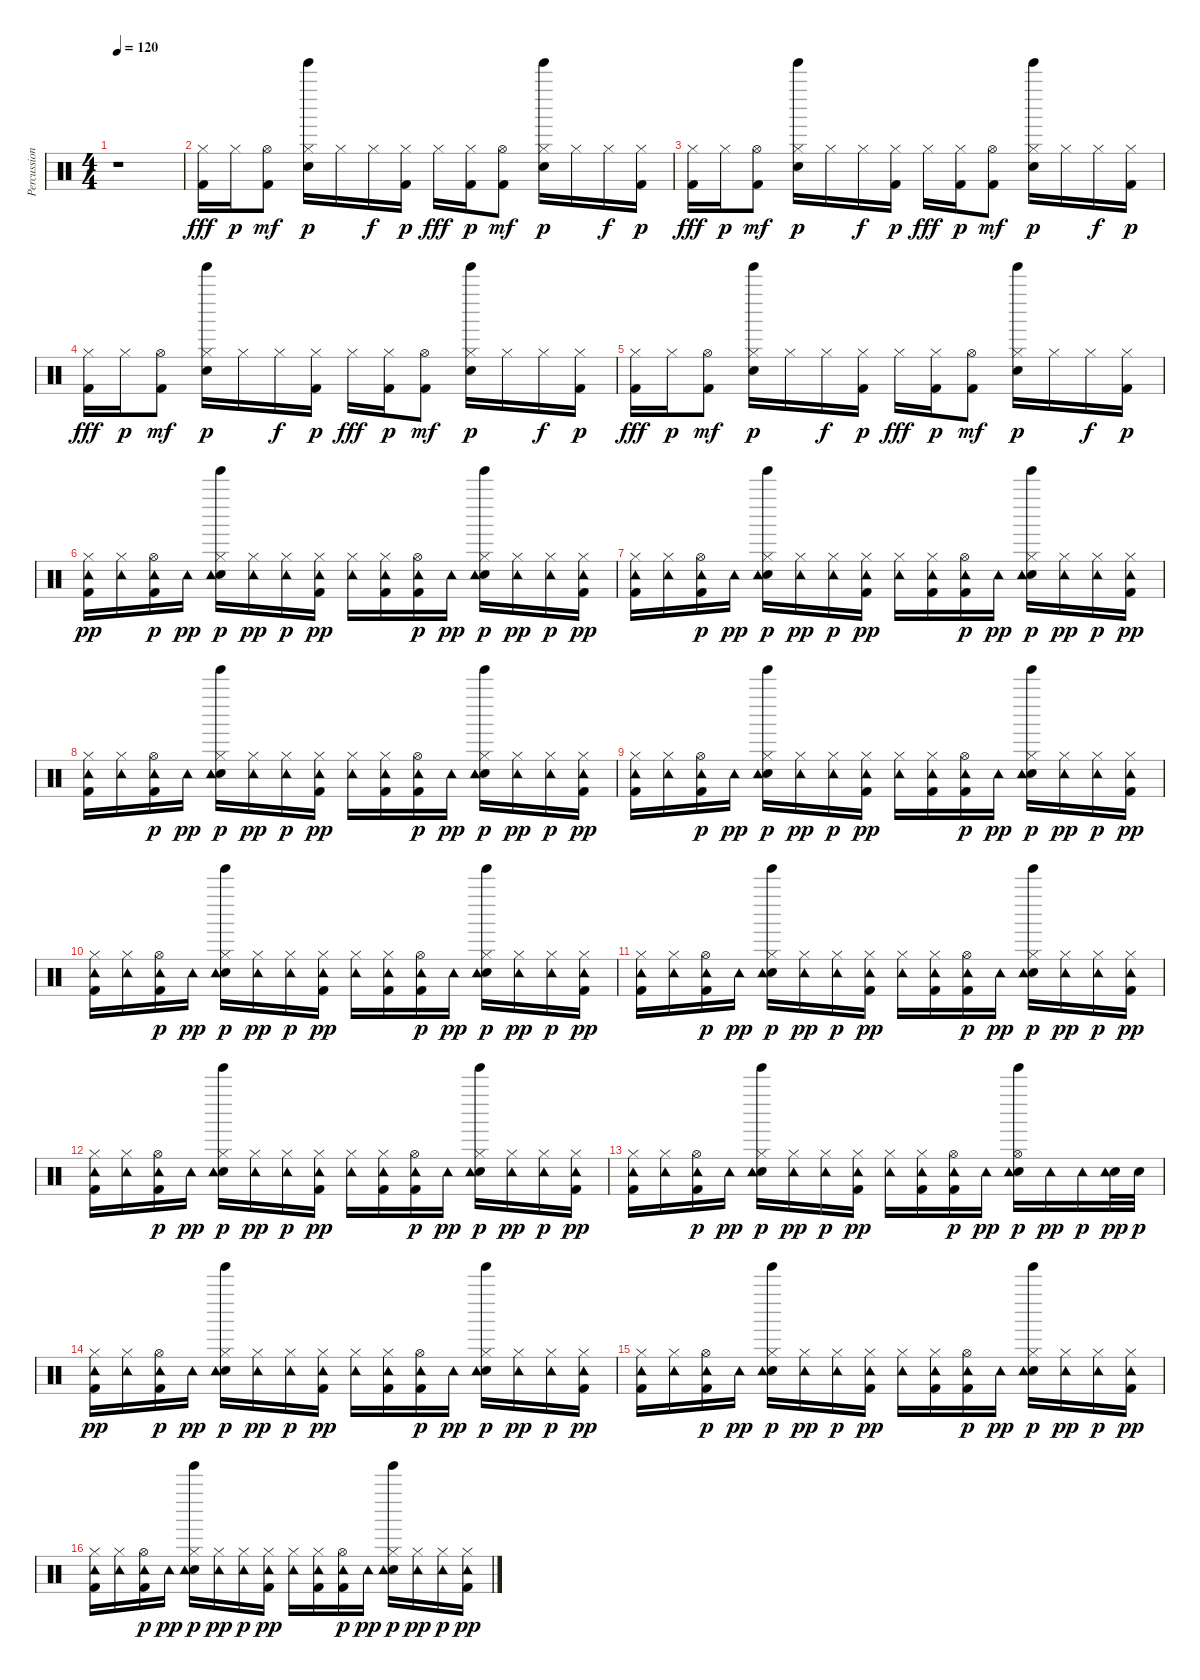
\track ("Percussioni" "Percussion") {instrument percussion}
\staff {score}
\articulation defaults
\ts (4 4)
\tempo 120
\clef neutral
\ks c
r.1{dy fff} |
("Kick (hit) 2" "Hi-Hat (closed)").16 "Hi-Hat (closed)".16{dy p} ("Kick (hit) 2" "Hi-Hat (open)").8{dy mf} ("Electric Snare (hit)" "Hi-Hat (closed)" "Tinkle Bell (hit)").16{dy p} "Hi-Hat (closed)".16 "Hi-Hat (closed)".16{dy f} ("Kick (hit) 2" "Hi-Hat (closed)").16{dy p} "Hi-Hat (closed)".16{dy fff} ("Kick (hit) 2" "Hi-Hat (closed)").16{dy p} ("Kick (hit) 2" "Hi-Hat (open)").8{dy mf} ("Electric Snare (hit)" "Hi-Hat (closed)" "Tinkle Bell (hit)").16{dy p} "Hi-Hat (closed)".16 "Hi-Hat (closed)".16{dy f} ("Kick (hit) 2" "Hi-Hat (closed)").16{dy p} |
("Kick (hit) 2" "Hi-Hat (closed)").16{dy fff} "Hi-Hat (closed)".16{dy p} ("Kick (hit) 2" "Hi-Hat (open)").8{dy mf} ("Electric Snare (hit)" "Hi-Hat (closed)" "Tinkle Bell (hit)").16{dy p} "Hi-Hat (closed)".16 "Hi-Hat (closed)".16{dy f} ("Kick (hit) 2" "Hi-Hat (closed)").16{dy p} "Hi-Hat (closed)".16{dy fff} ("Kick (hit) 2" "Hi-Hat (closed)").16{dy p} ("Kick (hit) 2" "Hi-Hat (open)").8{dy mf} ("Electric Snare (hit)" "Hi-Hat (closed)" "Tinkle Bell (hit)").16{dy p} "Hi-Hat (closed)".16 "Hi-Hat (closed)".16{dy f} ("Kick (hit) 2" "Hi-Hat (closed)").16{dy p} |
("Kick (hit) 2" "Hi-Hat (closed)").16{dy fff} "Hi-Hat (closed)".16{dy p} ("Kick (hit) 2" "Hi-Hat (open)").8{dy mf} ("Electric Snare (hit)" "Hi-Hat (closed)" "Tinkle Bell (hit)").16{dy p} "Hi-Hat (closed)".16 "Hi-Hat (closed)".16{dy f} ("Kick (hit) 2" "Hi-Hat (closed)").16{dy p} "Hi-Hat (closed)".16{dy fff} ("Kick (hit) 2" "Hi-Hat (closed)").16{dy p} ("Kick (hit) 2" "Hi-Hat (open)").8{dy mf} ("Electric Snare (hit)" "Hi-Hat (closed)" "Tinkle Bell (hit)").16{dy p} "Hi-Hat (closed)".16 "Hi-Hat (closed)".16{dy f} ("Kick (hit) 2" "Hi-Hat (closed)").16{dy p} |
("Kick (hit) 2" "Hi-Hat (closed)").16{dy fff} "Hi-Hat (closed)".16{dy p} ("Kick (hit) 2" "Hi-Hat (open)").8{dy mf} ("Electric Snare (hit)" "Hi-Hat (closed)" "Tinkle Bell (hit)").16{dy p} "Hi-Hat (closed)".16 "Hi-Hat (closed)".16{dy f} ("Kick (hit) 2" "Hi-Hat (closed)").16{dy p} "Hi-Hat (closed)".16{dy fff} ("Kick (hit) 2" "Hi-Hat (closed)").16{dy p} ("Kick (hit) 2" "Hi-Hat (open)").8{dy mf} ("Electric Snare (hit)" "Hi-Hat (closed)" "Tinkle Bell (hit)").16{dy p} "Hi-Hat (closed)".16 "Hi-Hat (closed)".16{dy f} ("Kick (hit) 2" "Hi-Hat (closed)").16{dy p} |
("Kick (hit) 2" "Hi-Hat (closed)" "Tambourine (hit)").16{dy pp} ("Hi-Hat (closed)" "Tambourine (hit)").16 ("Kick (hit) 2" "Hi-Hat (open)" "Tambourine (hit)").16{dy p} "Tambourine (hit)".16{dy pp} ("Electric Snare (hit)" "Hi-Hat (closed)" "Tambourine (hit)" "Tinkle Bell (hit)").16{dy p} ("Hi-Hat (closed)" "Tambourine (hit)").16{dy pp} ("Hi-Hat (closed)" "Tambourine (hit)").16{dy p} ("Kick (hit) 2" "Hi-Hat (closed)" "Tambourine (hit)").16{dy pp} ("Hi-Hat (closed)" "Tambourine (hit)").16 ("Kick (hit) 2" "Hi-Hat (closed)" "Tambourine (hit)").16 ("Kick (hit) 2" "Hi-Hat (open)" "Tambourine (hit)").16{dy p} "Tambourine (hit)".16{dy pp} ("Electric Snare (hit)" "Hi-Hat (closed)" "Tambourine (hit)" "Tinkle Bell (hit)").16{dy p} ("Hi-Hat (closed)" "Tambourine (hit)").16{dy pp} ("Hi-Hat (closed)" "Tambourine (hit)").16{dy p} ("Kick (hit) 2" "Hi-Hat (closed)" "Tambourine (hit)").16{dy pp} |
("Kick (hit) 2" "Hi-Hat (closed)" "Tambourine (hit)").16 ("Hi-Hat (closed)" "Tambourine (hit)").16 ("Kick (hit) 2" "Hi-Hat (open)" "Tambourine (hit)").16{dy p} "Tambourine (hit)".16{dy pp} ("Electric Snare (hit)" "Hi-Hat (closed)" "Tambourine (hit)" "Tinkle Bell (hit)").16{dy p} ("Hi-Hat (closed)" "Tambourine (hit)").16{dy pp} ("Hi-Hat (closed)" "Tambourine (hit)").16{dy p} ("Kick (hit) 2" "Hi-Hat (closed)" "Tambourine (hit)").16{dy pp} ("Hi-Hat (closed)" "Tambourine (hit)").16 ("Kick (hit) 2" "Hi-Hat (closed)" "Tambourine (hit)").16 ("Kick (hit) 2" "Hi-Hat (open)" "Tambourine (hit)").16{dy p} "Tambourine (hit)".16{dy pp} ("Electric Snare (hit)" "Hi-Hat (closed)" "Tambourine (hit)" "Tinkle Bell (hit)").16{dy p} ("Hi-Hat (closed)" "Tambourine (hit)").16{dy pp} ("Hi-Hat (closed)" "Tambourine (hit)").16{dy p} ("Kick (hit) 2" "Hi-Hat (closed)" "Tambourine (hit)").16{dy pp} |
("Kick (hit) 2" "Hi-Hat (closed)" "Tambourine (hit)").16 ("Hi-Hat (closed)" "Tambourine (hit)").16 ("Kick (hit) 2" "Hi-Hat (open)" "Tambourine (hit)").16{dy p} "Tambourine (hit)".16{dy pp} ("Electric Snare (hit)" "Hi-Hat (closed)" "Tambourine (hit)" "Tinkle Bell (hit)").16{dy p} ("Hi-Hat (closed)" "Tambourine (hit)").16{dy pp} ("Hi-Hat (closed)" "Tambourine (hit)").16{dy p} ("Kick (hit) 2" "Hi-Hat (closed)" "Tambourine (hit)").16{dy pp} ("Hi-Hat (closed)" "Tambourine (hit)").16 ("Kick (hit) 2" "Hi-Hat (closed)" "Tambourine (hit)").16 ("Kick (hit) 2" "Hi-Hat (open)" "Tambourine (hit)").16{dy p} "Tambourine (hit)".16{dy pp} ("Electric Snare (hit)" "Hi-Hat (closed)" "Tambourine (hit)" "Tinkle Bell (hit)").16{dy p} ("Hi-Hat (closed)" "Tambourine (hit)").16{dy pp} ("Hi-Hat (closed)" "Tambourine (hit)").16{dy p} ("Kick (hit) 2" "Hi-Hat (closed)" "Tambourine (hit)").16{dy pp} |
("Kick (hit) 2" "Hi-Hat (closed)" "Tambourine (hit)").16 ("Hi-Hat (closed)" "Tambourine (hit)").16 ("Kick (hit) 2" "Hi-Hat (open)" "Tambourine (hit)").16{dy p} "Tambourine (hit)".16{dy pp} ("Electric Snare (hit)" "Hi-Hat (closed)" "Tambourine (hit)" "Tinkle Bell (hit)").16{dy p} ("Hi-Hat (closed)" "Tambourine (hit)").16{dy pp} ("Hi-Hat (closed)" "Tambourine (hit)").16{dy p} ("Kick (hit) 2" "Hi-Hat (closed)" "Tambourine (hit)").16{dy pp} ("Hi-Hat (closed)" "Tambourine (hit)").16 ("Kick (hit) 2" "Hi-Hat (closed)" "Tambourine (hit)").16 ("Kick (hit) 2" "Hi-Hat (open)" "Tambourine (hit)").16{dy p} "Tambourine (hit)".16{dy pp} ("Electric Snare (hit)" "Hi-Hat (closed)" "Tambourine (hit)" "Tinkle Bell (hit)").16{dy p} ("Hi-Hat (closed)" "Tambourine (hit)").16{dy pp} ("Hi-Hat (closed)" "Tambourine (hit)").16{dy p} ("Kick (hit) 2" "Hi-Hat (closed)" "Tambourine (hit)").16{dy pp} |
("Kick (hit) 2" "Hi-Hat (closed)" "Tambourine (hit)").16 ("Hi-Hat (closed)" "Tambourine (hit)").16 ("Kick (hit) 2" "Hi-Hat (open)" "Tambourine (hit)").16{dy p} "Tambourine (hit)".16{dy pp} ("Electric Snare (hit)" "Hi-Hat (closed)" "Tambourine (hit)" "Tinkle Bell (hit)").16{dy p} ("Hi-Hat (closed)" "Tambourine (hit)").16{dy pp} ("Hi-Hat (closed)" "Tambourine (hit)").16{dy p} ("Kick (hit) 2" "Hi-Hat (closed)" "Tambourine (hit)").16{dy pp} ("Hi-Hat (closed)" "Tambourine (hit)").16 ("Kick (hit) 2" "Hi-Hat (closed)" "Tambourine (hit)").16 ("Kick (hit) 2" "Hi-Hat (open)" "Tambourine (hit)").16{dy p} "Tambourine (hit)".16{dy pp} ("Electric Snare (hit)" "Hi-Hat (closed)" "Tambourine (hit)" "Tinkle Bell (hit)").16{dy p} ("Hi-Hat (closed)" "Tambourine (hit)").16{dy pp} ("Hi-Hat (closed)" "Tambourine (hit)").16{dy p} ("Kick (hit) 2" "Hi-Hat (closed)" "Tambourine (hit)").16{dy pp} |
("Kick (hit) 2" "Hi-Hat (closed)" "Tambourine (hit)").16 ("Hi-Hat (closed)" "Tambourine (hit)").16 ("Kick (hit) 2" "Hi-Hat (open)" "Tambourine (hit)").16{dy p} "Tambourine (hit)".16{dy pp} ("Electric Snare (hit)" "Hi-Hat (closed)" "Tambourine (hit)" "Tinkle Bell (hit)").16{dy p} ("Hi-Hat (closed)" "Tambourine (hit)").16{dy pp} ("Hi-Hat (closed)" "Tambourine (hit)").16{dy p} ("Kick (hit) 2" "Hi-Hat (closed)" "Tambourine (hit)").16{dy pp} ("Hi-Hat (closed)" "Tambourine (hit)").16 ("Kick (hit) 2" "Hi-Hat (closed)" "Tambourine (hit)").16 ("Kick (hit) 2" "Hi-Hat (open)" "Tambourine (hit)").16{dy p} "Tambourine (hit)".16{dy pp} ("Electric Snare (hit)" "Hi-Hat (closed)" "Tambourine (hit)" "Tinkle Bell (hit)").16{dy p} ("Hi-Hat (closed)" "Tambourine (hit)").16{dy pp} ("Hi-Hat (closed)" "Tambourine (hit)").16{dy p} ("Kick (hit) 2" "Hi-Hat (closed)" "Tambourine (hit)").16{dy pp} |
("Kick (hit) 2" "Hi-Hat (closed)" "Tambourine (hit)").16 ("Hi-Hat (closed)" "Tambourine (hit)").16 ("Kick (hit) 2" "Hi-Hat (open)" "Tambourine (hit)").16{dy p} "Tambourine (hit)".16{dy pp} ("Electric Snare (hit)" "Hi-Hat (closed)" "Tambourine (hit)" "Tinkle Bell (hit)").16{dy p} ("Hi-Hat (closed)" "Tambourine (hit)").16{dy pp} ("Hi-Hat (closed)" "Tambourine (hit)").16{dy p} ("Kick (hit) 2" "Hi-Hat (closed)" "Tambourine (hit)").16{dy pp} ("Hi-Hat (closed)" "Tambourine (hit)").16 ("Kick (hit) 2" "Hi-Hat (closed)" "Tambourine (hit)").16 ("Kick (hit) 2" "Hi-Hat (open)" "Tambourine (hit)").16{dy p} "Tambourine (hit)".16{dy pp} ("Electric Snare (hit)" "Hi-Hat (closed)" "Tambourine (hit)" "Tinkle Bell (hit)").16{dy p} ("Hi-Hat (closed)" "Tambourine (hit)").16{dy pp} ("Hi-Hat (closed)" "Tambourine (hit)").16{dy p} ("Kick (hit) 2" "Hi-Hat (closed)" "Tambourine (hit)").16{dy pp} |
("Kick (hit) 2" "Hi-Hat (closed)" "Tambourine (hit)").16 ("Hi-Hat (closed)" "Tambourine (hit)").16 ("Kick (hit) 2" "Hi-Hat (open)" "Tambourine (hit)").16{dy p} "Tambourine (hit)".16{dy pp} ("Electric Snare (hit)" "Hi-Hat (closed)" "Tambourine (hit)" "Tinkle Bell (hit)").16{dy p} ("Hi-Hat (closed)" "Tambourine (hit)").16{dy pp} ("Hi-Hat (closed)" "Tambourine (hit)").16{dy p} ("Kick (hit) 2" "Hi-Hat (closed)" "Tambourine (hit)").16{dy pp} ("Hi-Hat (closed)" "Tambourine (hit)").16 ("Kick (hit) 2" "Hi-Hat (closed)" "Tambourine (hit)").16 ("Kick (hit) 2" "Hi-Hat (open)" "Tambourine (hit)").16{dy p} "Tambourine (hit)".16{dy pp} ("Electric Snare (hit)" "Hi-Hat (open)" "Tambourine (hit)" "Tinkle Bell (hit)").16{dy p} "Tambourine (hit)".16{dy pp} "Tambourine (hit)".16{dy p} ("Electric Snare (hit)" "Tambourine (hit)").32{dy pp} "Electric Snare (hit)".32{dy p} |
("Kick (hit) 2" "Hi-Hat (closed)" "Tambourine (hit)").16{dy pp} ("Hi-Hat (closed)" "Tambourine (hit)").16 ("Kick (hit) 2" "Hi-Hat (open)" "Tambourine (hit)").16{dy p} "Tambourine (hit)".16{dy pp} ("Electric Snare (hit)" "Hi-Hat (closed)" "Tambourine (hit)" "Tinkle Bell (hit)").16{dy p} ("Hi-Hat (closed)" "Tambourine (hit)").16{dy pp} ("Hi-Hat (closed)" "Tambourine (hit)").16{dy p} ("Kick (hit) 2" "Hi-Hat (closed)" "Tambourine (hit)").16{dy pp} ("Hi-Hat (closed)" "Tambourine (hit)").16 ("Kick (hit) 2" "Hi-Hat (closed)" "Tambourine (hit)").16 ("Kick (hit) 2" "Hi-Hat (open)" "Tambourine (hit)").16{dy p} "Tambourine (hit)".16{dy pp} ("Electric Snare (hit)" "Hi-Hat (closed)" "Tambourine (hit)" "Tinkle Bell (hit)").16{dy p} ("Hi-Hat (closed)" "Tambourine (hit)").16{dy pp} ("Hi-Hat (closed)" "Tambourine (hit)").16{dy p} ("Kick (hit) 2" "Hi-Hat (closed)" "Tambourine (hit)").16{dy pp} |
("Kick (hit) 2" "Hi-Hat (closed)" "Tambourine (hit)").16 ("Hi-Hat (closed)" "Tambourine (hit)").16 ("Kick (hit) 2" "Hi-Hat (open)" "Tambourine (hit)").16{dy p} "Tambourine (hit)".16{dy pp} ("Electric Snare (hit)" "Hi-Hat (closed)" "Tambourine (hit)" "Tinkle Bell (hit)").16{dy p} ("Hi-Hat (closed)" "Tambourine (hit)").16{dy pp} ("Hi-Hat (closed)" "Tambourine (hit)").16{dy p} ("Kick (hit) 2" "Hi-Hat (closed)" "Tambourine (hit)").16{dy pp} ("Hi-Hat (closed)" "Tambourine (hit)").16 ("Kick (hit) 2" "Hi-Hat (closed)" "Tambourine (hit)").16 ("Kick (hit) 2" "Hi-Hat (open)" "Tambourine (hit)").16{dy p} "Tambourine (hit)".16{dy pp} ("Electric Snare (hit)" "Hi-Hat (closed)" "Tambourine (hit)" "Tinkle Bell (hit)").16{dy p} ("Hi-Hat (closed)" "Tambourine (hit)").16{dy pp} ("Hi-Hat (closed)" "Tambourine (hit)").16{dy p} ("Kick (hit) 2" "Hi-Hat (closed)" "Tambourine (hit)").16{dy pp} |
("Kick (hit) 2" "Hi-Hat (closed)" "Tambourine (hit)").16 ("Hi-Hat (closed)" "Tambourine (hit)").16 ("Kick (hit) 2" "Hi-Hat (open)" "Tambourine (hit)").16{dy p} "Tambourine (hit)".16{dy pp} ("Electric Snare (hit)" "Hi-Hat (closed)" "Tambourine (hit)" "Tinkle Bell (hit)").16{dy p} ("Hi-Hat (closed)" "Tambourine (hit)").16{dy pp} ("Hi-Hat (closed)" "Tambourine (hit)").16{dy p} ("Kick (hit) 2" "Hi-Hat (closed)" "Tambourine (hit)").16{dy pp} ("Hi-Hat (closed)" "Tambourine (hit)").16 ("Kick (hit) 2" "Hi-Hat (closed)" "Tambourine (hit)").16 ("Kick (hit) 2" "Hi-Hat (open)" "Tambourine (hit)").16{dy p} "Tambourine (hit)".16{dy pp} ("Electric Snare (hit)" "Hi-Hat (closed)" "Tambourine (hit)" "Tinkle Bell (hit)").16{dy p} ("Hi-Hat (closed)" "Tambourine (hit)").16{dy pp} ("Hi-Hat (closed)" "Tambourine (hit)").16{dy p} ("Kick (hit) 2" "Hi-Hat (closed)" "Tambourine (hit)").16{dy pp}
